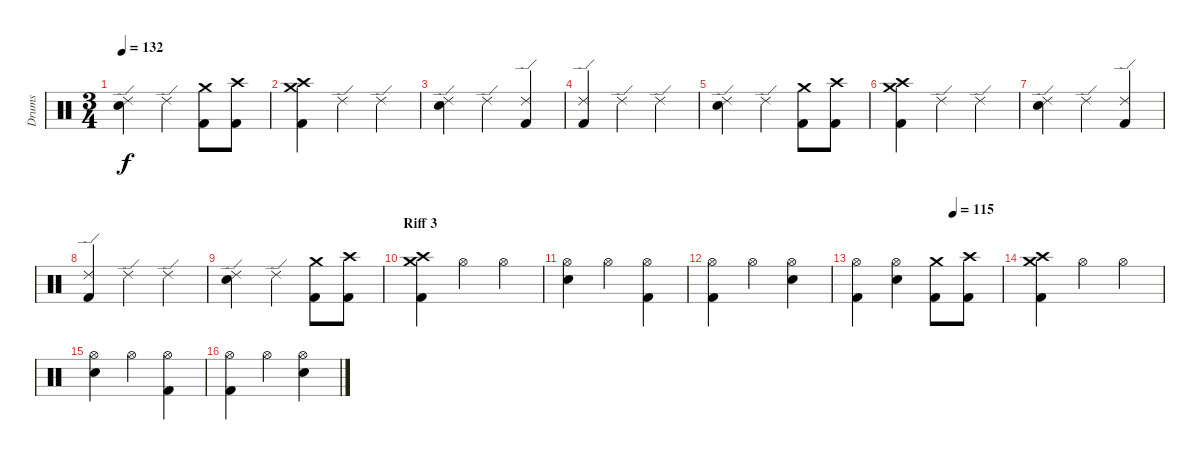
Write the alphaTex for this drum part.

\track ("Drums" "Drums") {instrument percussion}
\staff {score}
\articulation defaults
\ts (3 4)
\tempo 132
\clef neutral
\ks c
("Ride (edge) 2" "Electric Snare (hit)").4{dy f} "Ride (edge) 2".4 ("Crash medium (hit)" "Kick (hit) 2").8 ("Crash high (hit)" "Kick (hit) 2").8 |
("Crash high (hit)" "Crash medium (hit)" "Kick (hit) 2").4 "Ride (edge) 2".4 "Ride (edge) 2".4 |
("Ride (edge) 2" "Electric Snare (hit)").4 "Ride (edge) 2".4 ("Ride (edge) 2" "Kick (hit) 2").4 |
("Ride (edge) 2" "Kick (hit) 2").4 "Ride (edge) 2".4 "Ride (edge) 2".4 |
("Ride (edge) 2" "Electric Snare (hit)").4 "Ride (edge) 2".4 ("Crash medium (hit)" "Kick (hit) 2").8 ("Crash high (hit)" "Kick (hit) 2").8 |
("Crash high (hit)" "Crash medium (hit)" "Kick (hit) 2").4 "Ride (edge) 2".4 "Ride (edge) 2".4 |
("Ride (edge) 2" "Electric Snare (hit)").4 "Ride (edge) 2".4 ("Ride (edge) 2" "Kick (hit) 2").4 |
("Ride (edge) 2" "Kick (hit) 2").4 "Ride (edge) 2".4 "Ride (edge) 2".4 |
("Ride (edge) 2" "Electric Snare (hit)").4 "Ride (edge) 2".4 ("Crash medium (hit)" "Kick (hit) 2").8 ("Crash high (hit)" "Kick (hit) 2").8 |
\section ("" "Riff 3")
("Crash high (hit)" "Crash medium (hit)" "Kick (hit) 2").4 "Hi-Hat (open)".4 "Hi-Hat (open)".4 |
("Hi-Hat (open)" "Electric Snare (hit)").4 "Hi-Hat (open)".4 ("Hi-Hat (open)" "Kick (hit) 2").4 |
("Hi-Hat (open)" "Kick (hit) 2").4 "Hi-Hat (open)".4 ("Hi-Hat (open)" "Electric Snare (hit)").4 |
\tempo (115 0.6666666666666666)
("Hi-Hat (open)" "Kick (hit) 2").4 ("Hi-Hat (open)" "Electric Snare (hit)").4 ("Crash medium (hit)" "Kick (hit) 2").8 ("Crash high (hit)" "Kick (hit) 2").8 |
("Crash high (hit)" "Crash medium (hit)" "Kick (hit) 2").4 "Hi-Hat (open)".4 "Hi-Hat (open)".4 |
("Hi-Hat (open)" "Electric Snare (hit)").4 "Hi-Hat (open)".4 ("Hi-Hat (open)" "Kick (hit) 2").4 |
("Hi-Hat (open)" "Kick (hit) 2").4 "Hi-Hat (open)".4 ("Hi-Hat (open)" "Electric Snare (hit)").4
